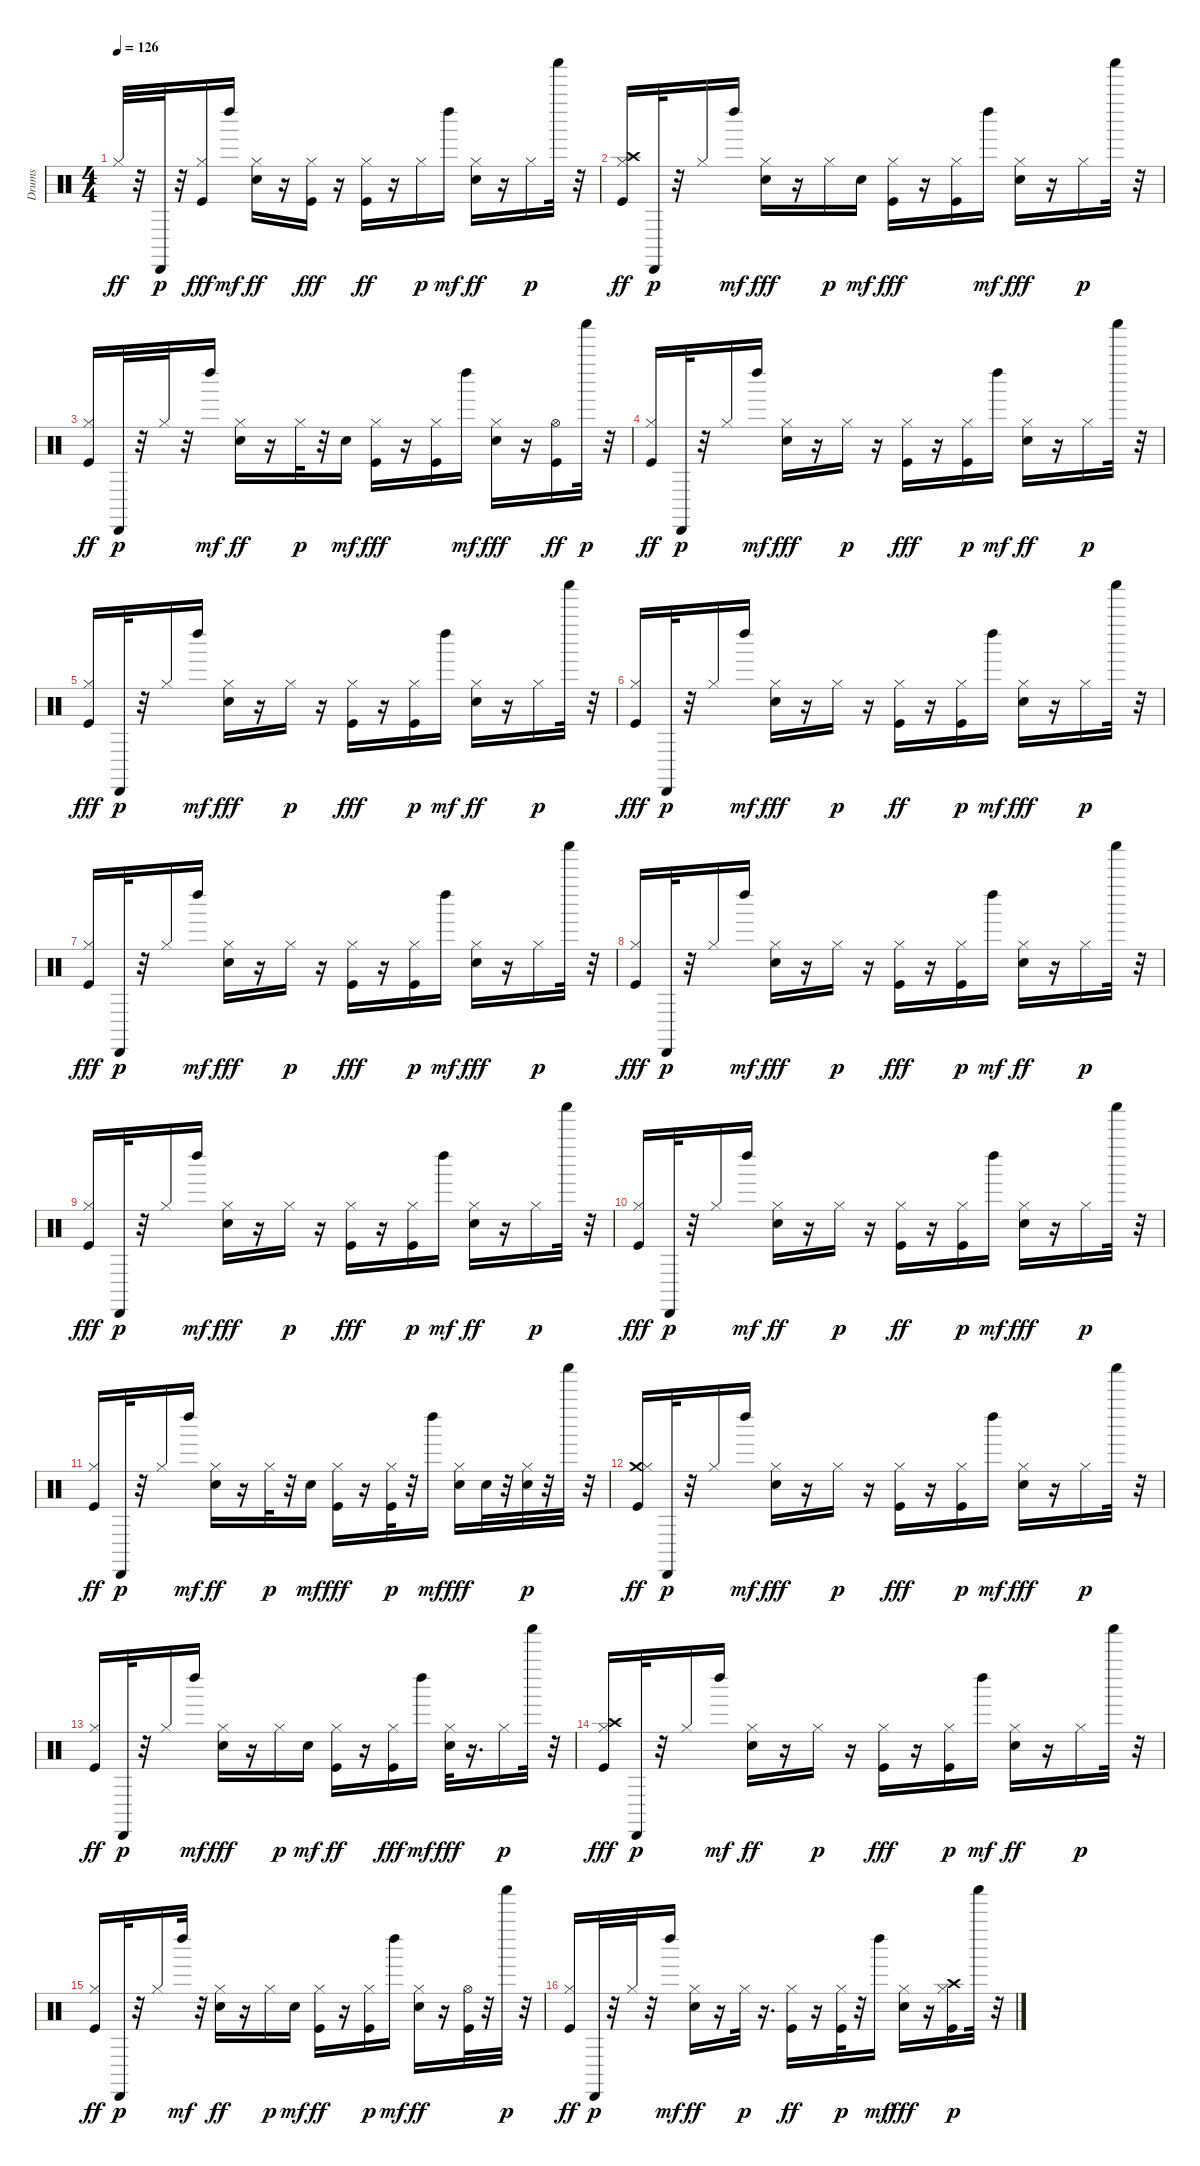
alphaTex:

\track ("Drums" "Drums") {instrument percussion}
\staff {score}
\articulation defaults
\ts (4 4)
\tempo 126
\clef neutral
\ks c "Hi-Hat (closed)".32{dy ff}
r.32 "Cabasa (hit)".32{dy p} r.32 ("Hi-Hat (closed)" "Kick (hit)").16{dy fff} "Left Maraca (hit)".16{dy mf} ("Electric Snare (hit)" "Hi-Hat (closed)").16{dy ff} r.16 ("Hi-Hat (closed)" "Kick (hit)").16{dy fff} r.16 ("Kick (hit)" "Hi-Hat (closed)").16{dy ff} r.16 "Hi-Hat (closed)".16{dy p} "Left Maraca (hit)".16{dy mf} ("Electric Snare (hit)" "Hi-Hat (closed)").16{dy ff} r.16 "Hi-Hat (closed)".16{dy p} "Shaker (hit)".32 r.32 |
("Crash high (hit)" "Kick (hit)" "Hi-Hat (closed)").16{dy ff} "Cabasa (hit)".32{dy p} r.32 "Hi-Hat (closed)".16 "Left Maraca (hit)".16{dy mf} ("Hi-Hat (closed)" "Electric Snare (hit)").16{dy fff} r.16 "Hi-Hat (closed)".16{dy p} "Electric Snare (hit)".16{dy mf} ("Hi-Hat (closed)" "Kick (hit)").16{dy fff} r.16 ("Hi-Hat (closed)" "Kick (hit)").16 "Left Maraca (hit)".16{dy mf} ("Hi-Hat (closed)" "Electric Snare (hit)").16{dy fff} r.16 "Hi-Hat (closed)".16{dy p} "Shaker (hit)".32 r.32 |
("Kick (hit)" "Hi-Hat (closed)").16{dy ff} "Cabasa (hit)".32{dy p} r.32 "Hi-Hat (closed)".32 r.32 "Left Maraca (hit)".16{dy mf} ("Electric Snare (hit)" "Hi-Hat (closed)").16{dy ff} r.16 "Hi-Hat (closed)".32{dy p} r.32 "Electric Snare (hit)".16{dy mf} ("Hi-Hat (closed)" "Kick (hit)").16{dy fff} r.16 ("Hi-Hat (closed)" "Kick (hit)").16 "Left Maraca (hit)".16{dy mf} ("Hi-Hat (closed)" "Electric Snare (hit)").16{dy fff} r.16 ("Kick (hit)" "Hi-Hat (open)").16{dy ff} "Shaker (hit)".32{dy p} r.32 |
("Kick (hit)" "Hi-Hat (closed)").16{dy ff} "Cabasa (hit)".32{dy p} r.32 "Hi-Hat (closed)".16 "Left Maraca (hit)".16{dy mf} ("Hi-Hat (closed)" "Electric Snare (hit)").16{dy fff} r.16 "Hi-Hat (closed)".16{dy p} r.16 ("Hi-Hat (closed)" "Kick (hit)").16{dy fff} r.16 ("Kick (hit)" "Hi-Hat (closed)").16{dy p} "Left Maraca (hit)".16{dy mf} ("Electric Snare (hit)" "Hi-Hat (closed)").16{dy ff} r.16 "Hi-Hat (closed)".16{dy p} "Shaker (hit)".32 r.32 |
("Hi-Hat (closed)" "Kick (hit)").16{dy fff} "Cabasa (hit)".32{dy p} r.32 "Hi-Hat (closed)".16 "Left Maraca (hit)".16{dy mf} ("Hi-Hat (closed)" "Electric Snare (hit)").16{dy fff} r.16 "Hi-Hat (closed)".16{dy p} r.16 ("Hi-Hat (closed)" "Kick (hit)").16{dy fff} r.16 ("Kick (hit)" "Hi-Hat (closed)").16{dy p} "Left Maraca (hit)".16{dy mf} ("Electric Snare (hit)" "Hi-Hat (closed)").16{dy ff} r.16 "Hi-Hat (closed)".16{dy p} "Shaker (hit)".32 r.32 |
("Hi-Hat (closed)" "Kick (hit)").16{dy fff} "Cabasa (hit)".32{dy p} r.32 "Hi-Hat (closed)".16 "Left Maraca (hit)".16{dy mf} ("Hi-Hat (closed)" "Electric Snare (hit)").16{dy fff} r.16 "Hi-Hat (closed)".16{dy p} r.16 ("Kick (hit)" "Hi-Hat (closed)").16{dy ff} r.16 ("Kick (hit)" "Hi-Hat (closed)").16{dy p} "Left Maraca (hit)".16{dy mf} ("Hi-Hat (closed)" "Electric Snare (hit)").16{dy fff} r.16 "Hi-Hat (closed)".16{dy p} "Shaker (hit)".32 r.32 |
("Hi-Hat (closed)" "Kick (hit)").16{dy fff} "Cabasa (hit)".32{dy p} r.32 "Hi-Hat (closed)".16 "Left Maraca (hit)".16{dy mf} ("Hi-Hat (closed)" "Electric Snare (hit)").16{dy fff} r.16 "Hi-Hat (closed)".16{dy p} r.16 ("Hi-Hat (closed)" "Kick (hit)").16{dy fff} r.16 ("Kick (hit)" "Hi-Hat (closed)").16{dy p} "Left Maraca (hit)".16{dy mf} ("Hi-Hat (closed)" "Electric Snare (hit)").16{dy fff} r.16 "Hi-Hat (closed)".16{dy p} "Shaker (hit)".32 r.32 |
("Hi-Hat (closed)" "Kick (hit)").16{dy fff} "Cabasa (hit)".32{dy p} r.32 "Hi-Hat (closed)".16 "Left Maraca (hit)".16{dy mf} ("Hi-Hat (closed)" "Electric Snare (hit)").16{dy fff} r.16 "Hi-Hat (closed)".16{dy p} r.16 ("Hi-Hat (closed)" "Kick (hit)").16{dy fff} r.16 ("Kick (hit)" "Hi-Hat (closed)").16{dy p} "Left Maraca (hit)".16{dy mf} ("Electric Snare (hit)" "Hi-Hat (closed)").16{dy ff} r.16 "Hi-Hat (closed)".16{dy p} "Shaker (hit)".32 r.32 |
("Hi-Hat (closed)" "Kick (hit)").16{dy fff} "Cabasa (hit)".32{dy p} r.32 "Hi-Hat (closed)".16 "Left Maraca (hit)".16{dy mf} ("Hi-Hat (closed)" "Electric Snare (hit)").16{dy fff} r.16 "Hi-Hat (closed)".16{dy p} r.16 ("Hi-Hat (closed)" "Kick (hit)").16{dy fff} r.16 ("Kick (hit)" "Hi-Hat (closed)").16{dy p} "Left Maraca (hit)".16{dy mf} ("Electric Snare (hit)" "Hi-Hat (closed)").16{dy ff} r.16 "Hi-Hat (closed)".16{dy p} "Shaker (hit)".32 r.32 |
("Hi-Hat (closed)" "Kick (hit)").16{dy fff} "Cabasa (hit)".32{dy p} r.32 "Hi-Hat (closed)".16 "Left Maraca (hit)".16{dy mf} ("Electric Snare (hit)" "Hi-Hat (closed)").16{dy ff} r.16 "Hi-Hat (closed)".16{dy p} r.16 ("Kick (hit)" "Hi-Hat (closed)").16{dy ff} r.16 ("Kick (hit)" "Hi-Hat (closed)").16{dy p} "Left Maraca (hit)".16{dy mf} ("Hi-Hat (closed)" "Electric Snare (hit)").16{dy fff} r.16 "Hi-Hat (closed)".16{dy p} "Shaker (hit)".32 r.32 |
("Kick (hit)" "Hi-Hat (closed)").16{dy ff} "Cabasa (hit)".32{dy p} r.32 "Hi-Hat (closed)".16 "Left Maraca (hit)".16{dy mf} ("Electric Snare (hit)" "Hi-Hat (closed)").16{dy ff} r.16 "Hi-Hat (closed)".32{dy p} r.32 "Electric Snare (hit)".16{dy mf} ("Hi-Hat (closed)" "Kick (hit)").16{dy fff} r.16 ("Kick (hit)" "Hi-Hat (closed)").32{dy p} r.32 "Left Maraca (hit)".16{dy mf} ("Hi-Hat (closed)" "Electric Snare (hit)").16{dy fff} "Electric Snare (hit)".32 r.32 ("Electric Snare (hit)" "Hi-Hat (closed)").32{dy p} r.32 "Shaker (hit)".32 r.32 |
("Crash medium (hit)" "Kick (hit)" "Hi-Hat (closed)").16{dy ff} "Cabasa (hit)".32{dy p} r.32 "Hi-Hat (closed)".16 "Left Maraca (hit)".16{dy mf} ("Hi-Hat (closed)" "Electric Snare (hit)").16{dy fff} r.16 "Hi-Hat (closed)".16{dy p} r.16 ("Hi-Hat (closed)" "Kick (hit)").16{dy fff} r.16 ("Kick (hit)" "Hi-Hat (closed)").16{dy p} "Left Maraca (hit)".16{dy mf} ("Hi-Hat (closed)" "Electric Snare (hit)").16{dy fff} r.16 "Hi-Hat (closed)".16{dy p} "Shaker (hit)".32 r.32 |
("Kick (hit)" "Hi-Hat (closed)").16{dy ff} "Cabasa (hit)".32{dy p} r.32 "Hi-Hat (closed)".16 "Left Maraca (hit)".16{dy mf} ("Hi-Hat (closed)" "Electric Snare (hit)").16{dy fff} r.16 "Hi-Hat (closed)".16{dy p} "Electric Snare (hit)".16{dy mf} ("Kick (hit)" "Hi-Hat (closed)").16{dy ff} r.16 ("Hi-Hat (closed)" "Kick (hit)").16{dy fff} "Left Maraca (hit)".16{dy mf} ("Hi-Hat (closed)" "Electric Snare (hit)").32{dy fff} r.16{d} "Hi-Hat (closed)".16{dy p} "Shaker (hit)".32 r.32 |
("Crash high (hit)" "Hi-Hat (closed)" "Kick (hit)").16{dy fff} "Cabasa (hit)".32{dy p} r.32 "Hi-Hat (closed)".16 "Left Maraca (hit)".16{dy mf} ("Electric Snare (hit)" "Hi-Hat (closed)").16{dy ff} r.16 "Hi-Hat (closed)".16{dy p} r.16 ("Hi-Hat (closed)" "Kick (hit)").16{dy fff} r.16 ("Kick (hit)" "Hi-Hat (closed)").16{dy p} "Left Maraca (hit)".16{dy mf} ("Electric Snare (hit)" "Hi-Hat (closed)").16{dy ff} r.16 "Hi-Hat (closed)".16{dy p} "Shaker (hit)".32 r.32 |
("Kick (hit)" "Hi-Hat (closed)").16{dy ff} "Cabasa (hit)".32{dy p} r.32 "Hi-Hat (closed)".16 "Left Maraca (hit)".32{dy mf} r.32 ("Electric Snare (hit)" "Hi-Hat (closed)").16{dy ff} r.16 "Hi-Hat (closed)".16{dy p} "Electric Snare (hit)".16{dy mf} ("Kick (hit)" "Hi-Hat (closed)").16{dy ff} r.16 ("Kick (hit)" "Hi-Hat (closed)").16{dy p} "Left Maraca (hit)".16{dy mf} ("Electric Snare (hit)" "Hi-Hat (closed)").16{dy ff} r.16 ("Kick (hit)" "Hi-Hat (open)").32 r.32 "Shaker (hit)".32{dy p} r.32 |
("Kick (hit)" "Hi-Hat (closed)").16{dy ff} "Cabasa (hit)".32{dy p} r.32 "Hi-Hat (closed)".32 r.32 "Left Maraca (hit)".16{dy mf} ("Electric Snare (hit)" "Hi-Hat (closed)").16{dy ff} r.16 "Hi-Hat (closed)".32{dy p} r.16{d} ("Kick (hit)" "Hi-Hat (closed)").16{dy ff} r.16 ("Kick (hit)" "Hi-Hat (closed)").32{dy p} r.32 "Left Maraca (hit)".16{dy mf} ("Hi-Hat (closed)" "Electric Snare (hit)").16{dy fff} r.16 ("Crash high (hit)" "Kick (hit)" "Hi-Hat (closed)").16{dy p} "Shaker (hit)".32 r.32
